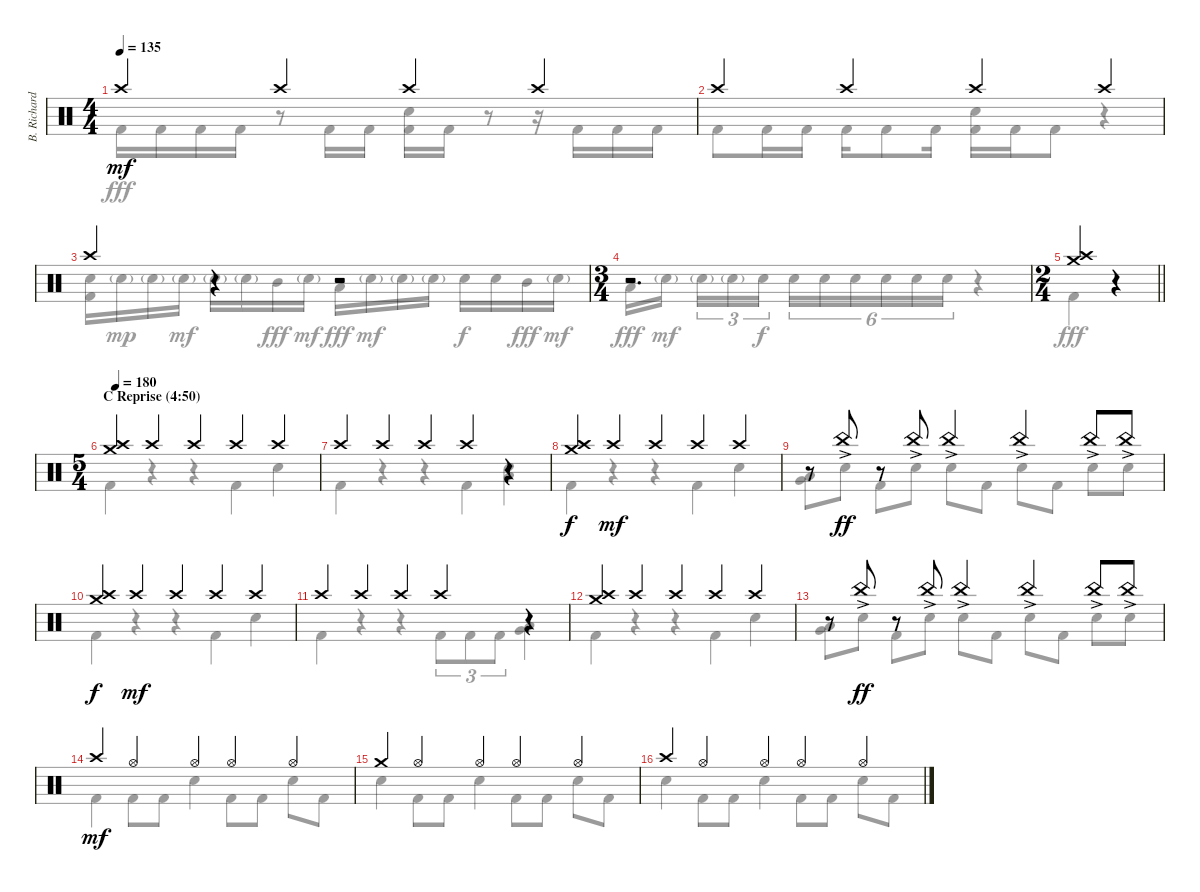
\track ("B. Richardson Drums" "B. Richard") {instrument percussion}
\staff {score}
\articulation defaults
\voice
\ts (4 4)
\tempo 135
\clef neutral
\ks c "Crash high (hit)".4{dy mf} "Crash high (hit)".4 "Crash high (hit)".4 "Crash high (hit)".4
|
"Crash high (hit)".4 "Crash high (hit)".4 "Crash high (hit)".4 "Crash high (hit)".4 |
"Crash high (hit)".4 r.4 r.2 |
\ts (3 4)
r.2{d} |
\ts (2 4)
\barLineRight lightlight
("Crash high (hit)" "Crash medium (hit)").4 r.4 |
\ts (5 4)
\section ("" "C Reprise (4:50)")
\tempo 180
("Crash high (hit)" "Crash medium (hit)").4 "Crash high (hit)".4 "Crash high (hit)".4 "Crash high (hit)".4 "Crash high (hit)".4 |
"Crash high (hit)".4 "Crash high (hit)".4 "Crash high (hit)".4 "Crash high (hit)".4 r.4 |
("Crash high (hit)" "Crash medium (hit)").4{dy f} "Crash high (hit)".4{dy mf} "Crash high (hit)".4 "Crash high (hit)".4 "Crash high (hit)".4 |
r.8 "China (hit)"{ac}.8{dy ff} r.8 "China (hit)"{ac}.8 "China (hit)"{ac}.4 "China (hit)"{ac}.4 "China (hit)"{ac}.8 "China (hit)"{ac}.8 |
("Crash high (hit)" "Crash medium (hit)").4{dy f} "Crash high (hit)".4{dy mf} "Crash high (hit)".4 "Crash high (hit)".4 "Crash high (hit)".4 |
"Crash high (hit)".4 "Crash high (hit)".4 "Crash high (hit)".4 "Crash high (hit)".4 r.4 |
("Crash high (hit)" "Crash medium (hit)").4 "Crash high (hit)".4 "Crash high (hit)".4 "Crash high (hit)".4 "Crash high (hit)".4 |
r.8 "China (hit)"{ac}.8{dy ff} r.8 "China (hit)"{ac}.8 "China (hit)"{ac}.4 "China (hit)"{ac}.4 "China (hit)"{ac}.8 "China (hit)"{ac}.8 |
"Crash high (hit)".4{dy mf} "Hi-Hat (open)".4 "Hi-Hat (open)".4 "Hi-Hat (open)".4 "Hi-Hat (open)".4 |
"Crash medium (hit)".4 "Hi-Hat (open)".4 "Hi-Hat (open)".4 "Hi-Hat (open)".4 "Hi-Hat (open)".4 |
"Crash high (hit)".4 "Hi-Hat (open)".4 "Hi-Hat (open)".4 "Hi-Hat (open)".4 "Hi-Hat (open)".4
\voice
\clef neutral
\ottava regular
\simile none
\ks c "Kick (hit) 2".16{dy fff} "Kick (hit) 2".16 "Kick (hit) 2".16 "Kick (hit) 2".16
r.8 "Kick (hit) 2".16 "Kick (hit) 2".16 ("Electric Snare (hit)" "Kick (hit) 2").16 "Kick (hit) 2".16 r.8 r.16 "Kick (hit) 2".16 "Kick (hit) 2".16 "Kick (hit) 2".16 |
"Kick (hit) 2".8 "Kick (hit) 2".16 "Kick (hit) 2".16 "Kick (hit) 2".16 "Kick (hit) 2".8 "Kick (hit) 2".16 ("Electric Snare (hit)" "Kick (hit) 2").16 "Kick (hit) 2".16 "Kick (hit) 2".8 r.4 |
("Electric Snare (hit)" "Kick (hit) 2").16 "Electric Snare (hit)"{g}.16{dy mp} "Electric Snare (hit)"{g}.16 "Electric Snare (hit)"{g}.16{dy mf} "Electric Snare (hit)"{g}.16 "Electric Snare (hit)"{g}.16 "Mid Tom (hit)".16{dy fff} "Electric Snare (hit)"{g}.16{dy mf} "Low Tom (hit)".16{dy fff} "Electric Snare (hit)"{g}.16{dy mf} "Electric Snare (hit)"{g}.16 "Electric Snare (hit)"{g}.16 "Electric Snare (hit)".16{dy f} "Electric Snare (hit)".16 "Mid Tom (hit)".16{dy fff} "Electric Snare (hit)"{g}.16{dy mf} |
"Low Tom (hit)".16{dy fff} "Electric Snare (hit)"{g}.16{dy mf beam splitsecondary} "Electric Snare (hit)"{g}.16{tu (3 2)} "Electric Snare (hit)"{g}.16{tu (3 2)} "Electric Snare (hit)".16{tu (3 2) dy f} "Electric Snare (hit)".16{tu (6 4)} "Electric Snare (hit)".16{tu (6 4)} "Electric Snare (hit)".16{tu (6 4)} "Electric Snare (hit)".16{tu (6 4)} "Electric Snare (hit)".16{tu (6 4)} "Electric Snare (hit)".16{tu (6 4)} r.4 |
\barLineRight lightlight "Kick (hit) 2".4{dy fff}
r.4 |
"Kick (hit) 2".4 r.4 r.4 "Kick (hit) 2".4 "Electric Snare (hit)".4 |
"Kick (hit) 2".4 r.4 r.4 "Kick (hit) 2".4 ("Electric Snare (hit)" "Low Tom (hit)").4 |
"Kick (hit) 2".4 r.4 r.4 "Kick (hit) 2".4 "Electric Snare (hit)".4 |
("Low Tom (hit)" "Very Low Tom (hit)").8 "Electric Snare (hit)".8 "Kick (hit) 2".8 "Electric Snare (hit)".8 "Electric Snare (hit)".8 "Kick (hit) 2".8 "Electric Snare (hit)".8 "Kick (hit) 2".8 "Electric Snare (hit)".8 "Electric Snare (hit)".8 |
"Kick (hit) 2".4 r.4 r.4 "Kick (hit) 2".4 "Electric Snare (hit)".4 |
"Kick (hit) 2".4 r.4 r.4 "Kick (hit) 2".8{tu (3 2)} "Kick (hit) 2".8{tu (3 2)} "Kick (hit) 2".8{tu (3 2)} ("Low Tom (hit)" "Very Low Tom (hit)").4 |
"Kick (hit) 2".4 r.4 r.4 "Kick (hit) 2".4 "Electric Snare (hit)".4 |
("Low Tom (hit)" "Very Low Tom (hit)").8 "Electric Snare (hit)".8 "Kick (hit) 2".8 "Electric Snare (hit)".8 "Electric Snare (hit)".8 "Kick (hit) 2".8 "Electric Snare (hit)".8 "Kick (hit) 2".8 "Electric Snare (hit)".8 "Electric Snare (hit)".8 |
"Kick (hit) 2".4 "Kick (hit) 2".8 "Kick (hit) 2".8 "Electric Snare (hit)".4 "Kick (hit) 2".8 "Kick (hit) 2".8 "Electric Snare (hit)".8 "Kick (hit) 2".8 |
"Electric Snare (hit)".4 "Kick (hit) 2".8 "Kick (hit) 2".8 "Electric Snare (hit)".4 "Kick (hit) 2".8 "Kick (hit) 2".8 "Electric Snare (hit)".8 "Kick (hit) 2".8 |
"Electric Snare (hit)".4 "Kick (hit) 2".8 "Kick (hit) 2".8 "Electric Snare (hit)".4 "Kick (hit) 2".8 "Kick (hit) 2".8 "Electric Snare (hit)".8 "Kick (hit) 2".8
